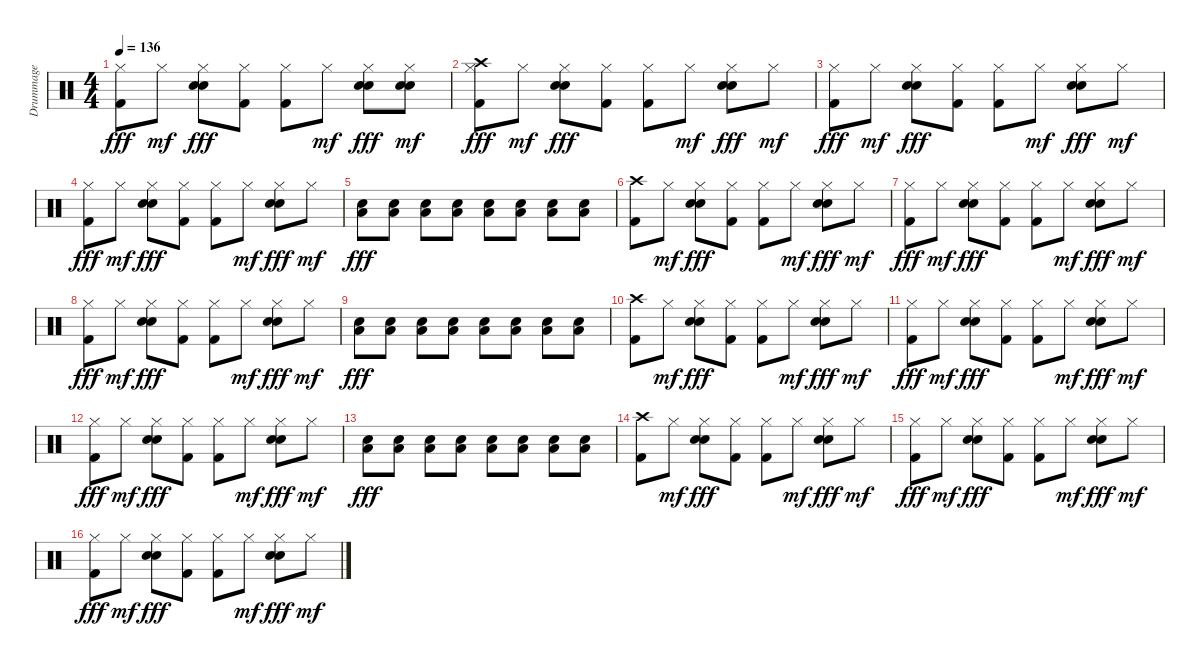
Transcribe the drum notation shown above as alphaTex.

\track ("Drummage" "Drummage") {instrument percussion}
\staff {score}
\articulation defaults
\ts (4 4)
\tempo 136
\clef neutral
\ks c
("Hi-Hat (closed)" "Kick (hit) 2").8{dy fff} "Hi-Hat (closed)".8{dy mf} ("Hi-Hat (closed)" "Snare (hit) 2" "Electric Snare (hit)").8{dy fff} ("Hi-Hat (closed)" "Kick (hit) 2").8 ("Hi-Hat (closed)" "Kick (hit) 2").8 "Hi-Hat (closed)".8{dy mf} ("Hi-Hat (closed)" "Electric Snare (hit)" "Snare (hit) 2").8{dy fff} ("Snare (hit) 2" "Electric Snare (hit)" "Hi-Hat (closed)").8{dy mf} |
("Crash high (hit)" "Hi-Hat (closed)" "Kick (hit) 2").8{dy fff} "Hi-Hat (closed)".8{dy mf} ("Hi-Hat (closed)" "Snare (hit) 2" "Electric Snare (hit)").8{dy fff} ("Hi-Hat (closed)" "Kick (hit) 2").8 ("Hi-Hat (closed)" "Kick (hit) 2").8 "Hi-Hat (closed)".8{dy mf} ("Hi-Hat (closed)" "Electric Snare (hit)" "Snare (hit) 2").8{dy fff} "Hi-Hat (closed)".8{dy mf} |
("Hi-Hat (closed)" "Kick (hit) 2").8{dy fff} "Hi-Hat (closed)".8{dy mf} ("Hi-Hat (closed)" "Snare (hit) 2" "Electric Snare (hit)").8{dy fff} ("Hi-Hat (closed)" "Kick (hit) 2").8 ("Hi-Hat (closed)" "Kick (hit) 2").8 "Hi-Hat (closed)".8{dy mf} ("Hi-Hat (closed)" "Electric Snare (hit)" "Snare (hit) 2").8{dy fff} "Hi-Hat (closed)".8{dy mf} |
("Hi-Hat (closed)" "Kick (hit) 2").8{dy fff} "Hi-Hat (closed)".8{dy mf} ("Hi-Hat (closed)" "Snare (hit) 2" "Electric Snare (hit)").8{dy fff} ("Hi-Hat (closed)" "Kick (hit) 2").8 ("Hi-Hat (closed)" "Kick (hit) 2").8 "Hi-Hat (closed)".8{dy mf} ("Hi-Hat (closed)" "Electric Snare (hit)" "Snare (hit) 2").8{dy fff} "Hi-Hat (closed)".8{dy mf} |
("Low Floor Tom (hit)" "Snare (hit) 2").8{dy fff} ("Low Floor Tom (hit)" "Snare (hit) 2").8 ("Low Floor Tom (hit)" "Snare (hit) 2").8 ("Low Floor Tom (hit)" "Snare (hit) 2").8 ("Low Floor Tom (hit)" "Snare (hit) 2").8 ("Low Floor Tom (hit)" "Snare (hit) 2").8 ("Low Floor Tom (hit)" "Snare (hit) 2").8 ("Low Floor Tom (hit)" "Snare (hit) 2").8 |
("Crash high (hit)" "Kick (hit) 2").8 "Hi-Hat (closed)".8{dy mf} ("Hi-Hat (closed)" "Snare (hit) 2" "Electric Snare (hit)").8{dy fff} ("Hi-Hat (closed)" "Kick (hit) 2").8 ("Hi-Hat (closed)" "Kick (hit) 2").8 "Hi-Hat (closed)".8{dy mf} ("Hi-Hat (closed)" "Electric Snare (hit)" "Snare (hit) 2").8{dy fff} "Hi-Hat (closed)".8{dy mf} |
("Hi-Hat (closed)" "Kick (hit) 2").8{dy fff} "Hi-Hat (closed)".8{dy mf} ("Hi-Hat (closed)" "Snare (hit) 2" "Electric Snare (hit)").8{dy fff} ("Hi-Hat (closed)" "Kick (hit) 2").8 ("Hi-Hat (closed)" "Kick (hit) 2").8 "Hi-Hat (closed)".8{dy mf} ("Hi-Hat (closed)" "Electric Snare (hit)" "Snare (hit) 2").8{dy fff} "Hi-Hat (closed)".8{dy mf} |
("Hi-Hat (closed)" "Kick (hit) 2").8{dy fff} "Hi-Hat (closed)".8{dy mf} ("Hi-Hat (closed)" "Snare (hit) 2" "Electric Snare (hit)").8{dy fff} ("Hi-Hat (closed)" "Kick (hit) 2").8 ("Hi-Hat (closed)" "Kick (hit) 2").8 "Hi-Hat (closed)".8{dy mf} ("Hi-Hat (closed)" "Electric Snare (hit)" "Snare (hit) 2").8{dy fff} "Hi-Hat (closed)".8{dy mf} |
("Low Floor Tom (hit)" "Snare (hit) 2").8{dy fff} ("Low Floor Tom (hit)" "Snare (hit) 2").8 ("Low Floor Tom (hit)" "Snare (hit) 2").8 ("Low Floor Tom (hit)" "Snare (hit) 2").8 ("Low Floor Tom (hit)" "Snare (hit) 2").8 ("Low Floor Tom (hit)" "Snare (hit) 2").8 ("Low Floor Tom (hit)" "Snare (hit) 2").8 ("Low Floor Tom (hit)" "Snare (hit) 2").8 |
("Crash high (hit)" "Kick (hit) 2").8 "Hi-Hat (closed)".8{dy mf} ("Hi-Hat (closed)" "Snare (hit) 2" "Electric Snare (hit)").8{dy fff} ("Hi-Hat (closed)" "Kick (hit) 2").8 ("Hi-Hat (closed)" "Kick (hit) 2").8 "Hi-Hat (closed)".8{dy mf} ("Hi-Hat (closed)" "Electric Snare (hit)" "Snare (hit) 2").8{dy fff} "Hi-Hat (closed)".8{dy mf} |
("Hi-Hat (closed)" "Kick (hit) 2").8{dy fff} "Hi-Hat (closed)".8{dy mf} ("Hi-Hat (closed)" "Snare (hit) 2" "Electric Snare (hit)").8{dy fff} ("Hi-Hat (closed)" "Kick (hit) 2").8 ("Hi-Hat (closed)" "Kick (hit) 2").8 "Hi-Hat (closed)".8{dy mf} ("Hi-Hat (closed)" "Electric Snare (hit)" "Snare (hit) 2").8{dy fff} "Hi-Hat (closed)".8{dy mf} |
("Hi-Hat (closed)" "Kick (hit) 2").8{dy fff} "Hi-Hat (closed)".8{dy mf} ("Hi-Hat (closed)" "Snare (hit) 2" "Electric Snare (hit)").8{dy fff} ("Hi-Hat (closed)" "Kick (hit) 2").8 ("Hi-Hat (closed)" "Kick (hit) 2").8 "Hi-Hat (closed)".8{dy mf} ("Hi-Hat (closed)" "Electric Snare (hit)" "Snare (hit) 2").8{dy fff} "Hi-Hat (closed)".8{dy mf} |
("Low Floor Tom (hit)" "Snare (hit) 2").8{dy fff} ("Low Floor Tom (hit)" "Snare (hit) 2").8 ("Low Floor Tom (hit)" "Snare (hit) 2").8 ("Low Floor Tom (hit)" "Snare (hit) 2").8 ("Low Floor Tom (hit)" "Snare (hit) 2").8 ("Low Floor Tom (hit)" "Snare (hit) 2").8 ("Low Floor Tom (hit)" "Snare (hit) 2").8 ("Low Floor Tom (hit)" "Snare (hit) 2").8 |
("Crash high (hit)" "Kick (hit) 2").8 "Hi-Hat (closed)".8{dy mf} ("Hi-Hat (closed)" "Snare (hit) 2" "Electric Snare (hit)").8{dy fff} ("Hi-Hat (closed)" "Kick (hit) 2").8 ("Hi-Hat (closed)" "Kick (hit) 2").8 "Hi-Hat (closed)".8{dy mf} ("Hi-Hat (closed)" "Electric Snare (hit)" "Snare (hit) 2").8{dy fff} "Hi-Hat (closed)".8{dy mf} |
("Hi-Hat (closed)" "Kick (hit) 2").8{dy fff} "Hi-Hat (closed)".8{dy mf} ("Hi-Hat (closed)" "Snare (hit) 2" "Electric Snare (hit)").8{dy fff} ("Hi-Hat (closed)" "Kick (hit) 2").8 ("Hi-Hat (closed)" "Kick (hit) 2").8 "Hi-Hat (closed)".8{dy mf} ("Hi-Hat (closed)" "Electric Snare (hit)" "Snare (hit) 2").8{dy fff} "Hi-Hat (closed)".8{dy mf} |
("Hi-Hat (closed)" "Kick (hit) 2").8{dy fff} "Hi-Hat (closed)".8{dy mf} ("Hi-Hat (closed)" "Snare (hit) 2" "Electric Snare (hit)").8{dy fff} ("Hi-Hat (closed)" "Kick (hit) 2").8 ("Hi-Hat (closed)" "Kick (hit) 2").8 "Hi-Hat (closed)".8{dy mf} ("Hi-Hat (closed)" "Electric Snare (hit)" "Snare (hit) 2").8{dy fff} "Hi-Hat (closed)".8{dy mf}
